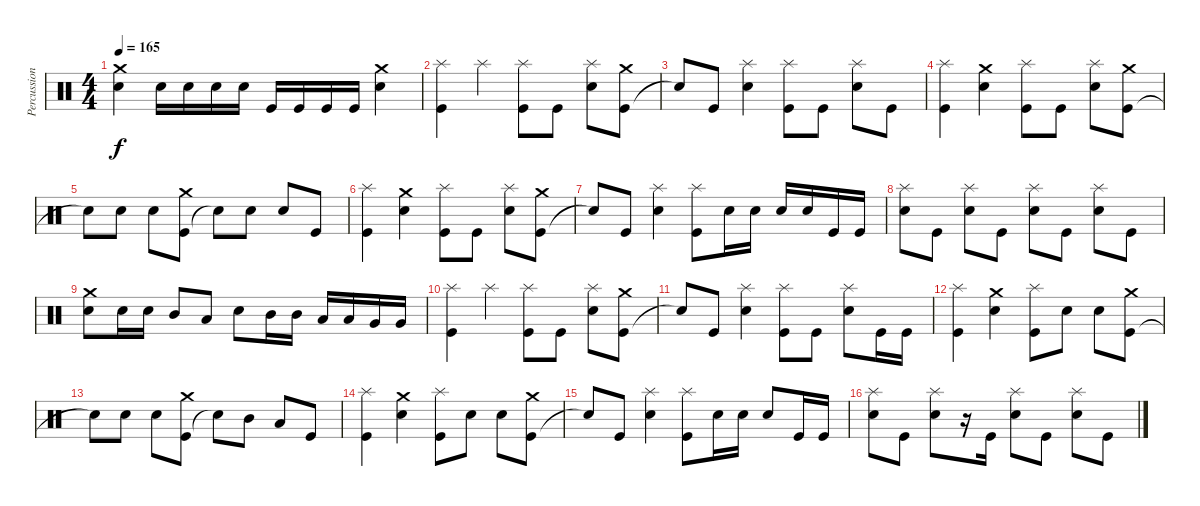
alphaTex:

\track ("Percussions" "Percussion") {instrument percussion}
\staff {score}
\articulation defaults
\ts (4 4)
\tempo 165
\clef neutral
\ks c
("Electric Snare (hit)" "Crash medium (hit)").4{dy f} "Electric Snare (hit)".16 "Electric Snare (hit)".16 "Electric Snare (hit)".16 "Electric Snare (hit)".16 "Kick (hit)".16 "Kick (hit)".16 "Kick (hit)".16 "Kick (hit)".16 ("Electric Snare (hit)" "Crash medium (hit)").4 |
("Kick (hit)" "Splash (hit)").4 "Splash (hit)".4 ("Kick (hit)" "Splash (hit)").8 "Kick (hit)".8 ("Electric Snare (hit)" "Splash (hit)").8 ("Kick (hit)" "Crash medium (hit)").8 |
"Snare (hit)"{t}.8 "Kick (hit)".8 ("Electric Snare (hit)" "Splash (hit)").4 ("Kick (hit)" "Splash (hit)").8 "Kick (hit)".8 ("Electric Snare (hit)" "Splash (hit)").8 "Kick (hit)".8 |
("Kick (hit)" "Splash (hit)").4 ("Electric Snare (hit)" "Crash medium (hit)").4 ("Kick (hit)" "Splash (hit)").8 "Kick (hit)".8 ("Electric Snare (hit)" "Splash (hit)").8 ("Kick (hit)" "Crash medium (hit)").8 |
"Snare (hit)"{t}.8 "Electric Snare (hit)".8 "Electric Snare (hit)".8 ("Kick (hit)" "Crash medium (hit)").8 "Snare (hit)"{t}.8 "Electric Snare (hit)".8 "Electric Snare (hit)".8 "Kick (hit)".8 |
("Kick (hit)" "Splash (hit)").4 ("Electric Snare (hit)" "Crash medium (hit)").4 ("Kick (hit)" "Splash (hit)").8 "Kick (hit)".8 ("Electric Snare (hit)" "Splash (hit)").8 ("Kick (hit)" "Crash medium (hit)").8 |
"Snare (hit)"{t}.8 "Kick (hit)".8 ("Electric Snare (hit)" "Splash (hit)").4 ("Kick (hit)" "Splash (hit)").8 "Electric Snare (hit)".16 "Electric Snare (hit)".16 "Electric Snare (hit)".16 "Electric Snare (hit)".16 "Kick (hit)".16 "Kick (hit)".16 |
("Electric Snare (hit)" "Splash (hit)").8 "Kick (hit)".8 ("Electric Snare (hit)" "Splash (hit)").8 "Kick (hit)".8 ("Electric Snare (hit)" "Splash (hit)").8 "Kick (hit)".8 ("Electric Snare (hit)" "Splash (hit)").8 "Kick (hit)".8 |
("Electric Snare (hit)" "Crash medium (hit)").8 "Electric Snare (hit)".16 "Electric Snare (hit)".16 "Mid Tom (hit)".8 "Low Tom (hit)".8 "Electric Snare (hit)".8 "Mid Tom (hit)".16 "Mid Tom (hit)".16 "Low Tom (hit)".16 "Low Tom (hit)".16 "Very Low Tom (hit)".16 "Very Low Tom (hit)".16 |
("Kick (hit)" "Splash (hit)").4 "Splash (hit)".4 ("Kick (hit)" "Splash (hit)").8 "Kick (hit)".8 ("Electric Snare (hit)" "Splash (hit)").8 ("Kick (hit)" "Crash medium (hit)").8 |
"Snare (hit)"{t}.8 "Kick (hit)".8 ("Electric Snare (hit)" "Splash (hit)").4 ("Kick (hit)" "Splash (hit)").8 "Kick (hit)".8 ("Electric Snare (hit)" "Splash (hit)").8 "Kick (hit)".16 "Kick (hit)".16 |
("Kick (hit)" "Splash (hit)").4 ("Electric Snare (hit)" "Crash medium (hit)").4 ("Kick (hit)" "Splash (hit)").8 "Electric Snare (hit)".8 "Electric Snare (hit)".8 ("Kick (hit)" "Crash medium (hit)").8 |
"Snare (hit)"{t}.8 "Electric Snare (hit)".8 "Electric Snare (hit)".8 ("Kick (hit)" "Crash medium (hit)").8 "Snare (hit)"{t}.8 "Mid Tom (hit)".8 "Low Tom (hit)".8 "Kick (hit)".8 |
("Kick (hit)" "Splash (hit)").4 ("Electric Snare (hit)" "Crash medium (hit)").4 ("Kick (hit)" "Splash (hit)").8 "Electric Snare (hit)".8 "Electric Snare (hit)".8 ("Kick (hit)" "Crash medium (hit)").8 |
"Snare (hit)"{t}.8 "Kick (hit)".8 ("Electric Snare (hit)" "Splash (hit)").4 ("Kick (hit)" "Splash (hit)").8 "Electric Snare (hit)".16 "Electric Snare (hit)".16 "Electric Snare (hit)".8 "Kick (hit)".16 "Kick (hit)".16 |
("Electric Snare (hit)" "Splash (hit)").8 "Kick (hit)".8 ("Electric Snare (hit)" "Splash (hit)").8 r.16 "Kick (hit)".16 ("Electric Snare (hit)" "Splash (hit)").8 "Kick (hit)".8 ("Electric Snare (hit)" "Splash (hit)").8 "Kick (hit)".8
